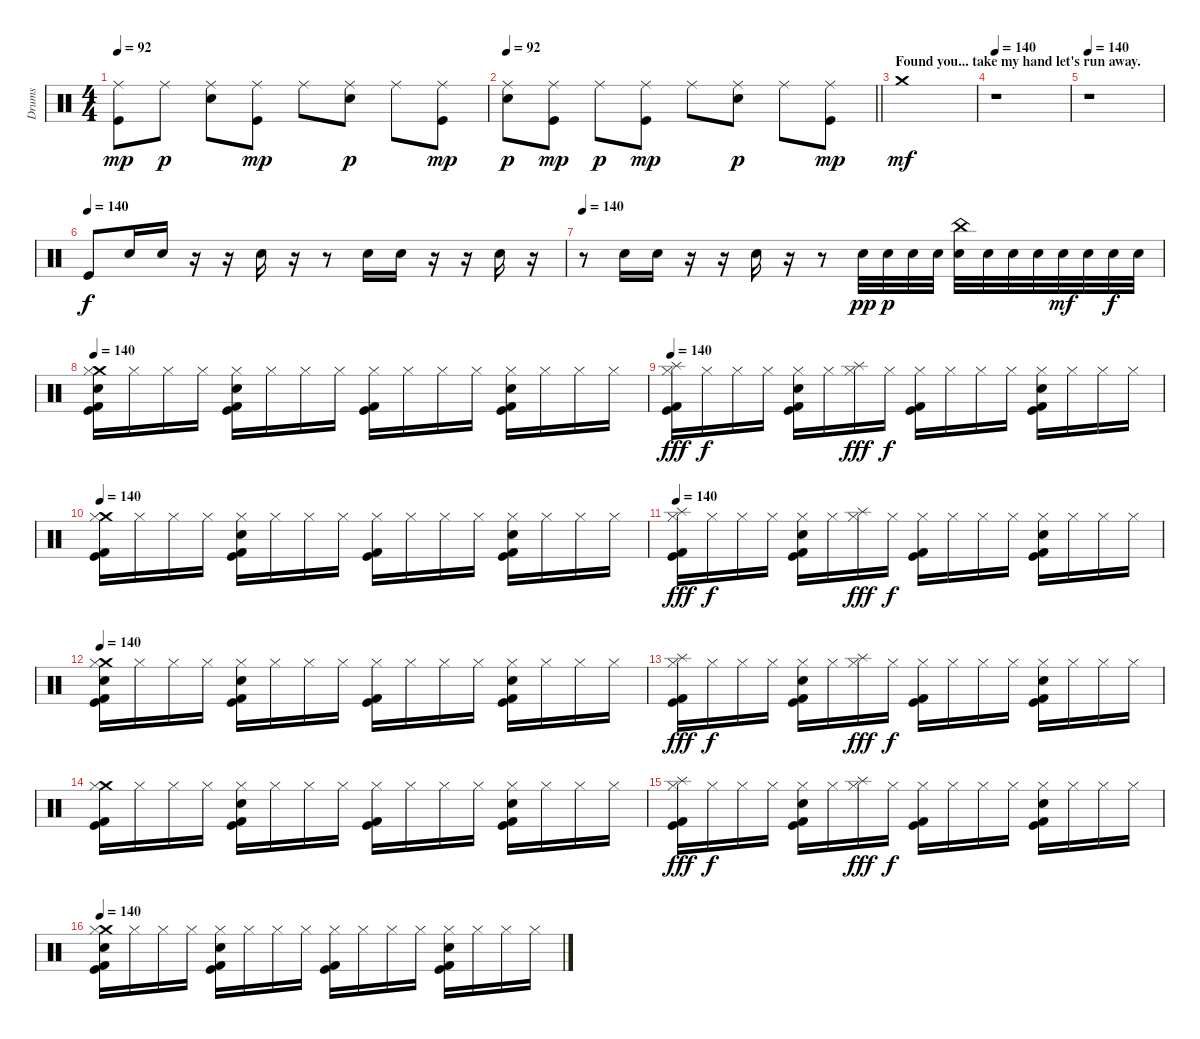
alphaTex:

\track ("Drums" "Drums") {instrument percussion}
\staff {score}
\articulation defaults
\ts (4 4)
\tempo 92
\clef neutral
\ks c
("Ride (middle)" "Kick (hit)").8{dy mp} "Ride (middle)".8{dy p} ("Ride (middle)" "Snare (hit) 2").8 ("Ride (middle)" "Kick (hit)").8{dy mp} "Ride (middle)".8 ("Ride (middle)" "Snare (hit) 2").8{dy p} "Ride (middle)".8 ("Ride (middle)" "Kick (hit)").8{dy mp} |
\tempo 92
\barLineRight lightlight
("Ride (middle)" "Snare (hit) 2").8{dy p} ("Ride (middle)" "Kick (hit)").8{dy mp} "Ride (middle)".8{dy p} ("Ride (middle)" "Kick (hit)").8{dy mp} "Ride (middle)".8 ("Ride (middle)" "Snare (hit) 2").8{dy p} "Ride (middle)".8 ("Ride (middle)" "Kick (hit)").8{dy mp} |
\section ("" "Found you... take my hand let's run away.")
"Crash medium (hit)".1{dy mf} |
\tempo 140
r.1 |
\tempo 140
r.1 |
\tempo (140)
"Kick (hit)".8{dy f} "Hand Clap (hit)".16 "Hand Clap (hit)".16 r.16 r.16 "Hand Clap (hit)".16 r.16 r.8 "Hand Clap (hit)".16 "Hand Clap (hit)".16 r.16 r.16 "Hand Clap (hit)".16 r.16 |
\tempo 140
r.8 "Hand Clap (hit)".16 "Hand Clap (hit)".16 r.16 r.16 "Hand Clap (hit)".16 r.16 r.8 "Hand Clap (hit)".32{dy pp} "Hand Clap (hit)".32{dy p} "Hand Clap (hit)".32 "Hand Clap (hit)".32 ("China (hit)" "Hand Clap (hit)").32 "Hand Clap (hit)".32 "Hand Clap (hit)".32 "Hand Clap (hit)".32 "Hand Clap (hit)".32{dy mf} "Hand Clap (hit)".32 "Hand Clap (hit)".32{dy f} "Hand Clap (hit)".32 |
\tempo 140
("Crash medium (hit)" "Hi-Hat (closed)" "Hand Clap (hit)" "Kick (hit)" "Kick (hit) 2").16 "Hi-Hat (closed)".16 "Hi-Hat (closed)".16 "Hi-Hat (closed)".16 ("Hi-Hat (closed)" "Electric Snare (hit)" "Kick (hit)" "Kick (hit) 2").16 "Hi-Hat (closed)".16 "Hi-Hat (closed)".16 "Hi-Hat (closed)".16 ("Hi-Hat (closed)" "Kick (hit)" "Kick (hit) 2").16 "Hi-Hat (closed)".16 "Hi-Hat (closed)".16 "Hi-Hat (closed)".16 ("Hi-Hat (closed)" "Electric Snare (hit)" "Kick (hit)" "Kick (hit) 2").16 "Hi-Hat (closed)".16 "Hi-Hat (closed)".16 "Hi-Hat (closed)".16 |
\tempo 140
("Splash (hit)" "Hi-Hat (closed)" "Kick (hit)" "Kick (hit) 2").16{dy fff} "Hi-Hat (closed)".16{dy f} "Hi-Hat (closed)".16 "Hi-Hat (closed)".16 ("Hi-Hat (closed)" "Electric Snare (hit)" "Kick (hit)" "Kick (hit) 2").16 "Hi-Hat (closed)".16 ("Splash (hit)" "Hi-Hat (closed)").16{dy fff} "Hi-Hat (closed)".16{dy f} ("Hi-Hat (closed)" "Kick (hit)" "Kick (hit) 2").16 "Hi-Hat (closed)".16 "Hi-Hat (closed)".16 "Hi-Hat (closed)".16 ("Hi-Hat (closed)" "Electric Snare (hit)" "Kick (hit)" "Kick (hit) 2").16 "Hi-Hat (closed)".16 "Hi-Hat (closed)".16 "Hi-Hat (closed)".16 |
\tempo 140
("Crash medium (hit)" "Hi-Hat (closed)" "Kick (hit)" "Kick (hit) 2").16 "Hi-Hat (closed)".16 "Hi-Hat (closed)".16 "Hi-Hat (closed)".16 ("Hi-Hat (closed)" "Electric Snare (hit)" "Kick (hit)" "Kick (hit) 2").16 "Hi-Hat (closed)".16 "Hi-Hat (closed)".16 "Hi-Hat (closed)".16 ("Hi-Hat (closed)" "Kick (hit)" "Kick (hit) 2").16 "Hi-Hat (closed)".16 "Hi-Hat (closed)".16 "Hi-Hat (closed)".16 ("Hi-Hat (closed)" "Electric Snare (hit)" "Kick (hit)" "Kick (hit) 2").16 "Hi-Hat (closed)".16 "Hi-Hat (closed)".16 "Hi-Hat (closed)".16 |
\tempo 140
("Splash (hit)" "Hi-Hat (closed)" "Kick (hit)" "Kick (hit) 2").16{dy fff} "Hi-Hat (closed)".16{dy f} "Hi-Hat (closed)".16 "Hi-Hat (closed)".16 ("Hi-Hat (closed)" "Electric Snare (hit)" "Kick (hit)" "Kick (hit) 2").16 "Hi-Hat (closed)".16 ("Splash (hit)" "Hi-Hat (closed)").16{dy fff} "Hi-Hat (closed)".16{dy f} ("Hi-Hat (closed)" "Kick (hit)" "Kick (hit) 2").16 "Hi-Hat (closed)".16 "Hi-Hat (closed)".16 "Hi-Hat (closed)".16 ("Hi-Hat (closed)" "Electric Snare (hit)" "Kick (hit)" "Kick (hit) 2").16 "Hi-Hat (closed)".16 "Hi-Hat (closed)".16 "Hi-Hat (closed)".16 |
\tempo 140
("Crash medium (hit)" "Hi-Hat (closed)" "Hand Clap (hit)" "Kick (hit)" "Kick (hit) 2").16 "Hi-Hat (closed)".16 "Hi-Hat (closed)".16 "Hi-Hat (closed)".16 ("Hi-Hat (closed)" "Electric Snare (hit)" "Kick (hit)" "Kick (hit) 2").16 "Hi-Hat (closed)".16 "Hi-Hat (closed)".16 "Hi-Hat (closed)".16 ("Hi-Hat (closed)" "Kick (hit)" "Kick (hit) 2").16 "Hi-Hat (closed)".16 "Hi-Hat (closed)".16 "Hi-Hat (closed)".16 ("Hi-Hat (closed)" "Electric Snare (hit)" "Kick (hit)" "Kick (hit) 2").16 "Hi-Hat (closed)".16 "Hi-Hat (closed)".16 "Hi-Hat (closed)".16 |
("Splash (hit)" "Hi-Hat (closed)" "Kick (hit)" "Kick (hit) 2").16{dy fff} "Hi-Hat (closed)".16{dy f} "Hi-Hat (closed)".16 "Hi-Hat (closed)".16 ("Hi-Hat (closed)" "Electric Snare (hit)" "Kick (hit)" "Kick (hit) 2").16 "Hi-Hat (closed)".16 ("Splash (hit)" "Hi-Hat (closed)").16{dy fff} "Hi-Hat (closed)".16{dy f} ("Hi-Hat (closed)" "Kick (hit)" "Kick (hit) 2").16 "Hi-Hat (closed)".16 "Hi-Hat (closed)".16 "Hi-Hat (closed)".16 ("Hi-Hat (closed)" "Electric Snare (hit)" "Kick (hit)" "Kick (hit) 2").16 "Hi-Hat (closed)".16 "Hi-Hat (closed)".16 "Hi-Hat (closed)".16 |
("Crash medium (hit)" "Hi-Hat (closed)" "Kick (hit)" "Kick (hit) 2").16 "Hi-Hat (closed)".16 "Hi-Hat (closed)".16 "Hi-Hat (closed)".16 ("Hi-Hat (closed)" "Electric Snare (hit)" "Kick (hit)" "Kick (hit) 2").16 "Hi-Hat (closed)".16 "Hi-Hat (closed)".16 "Hi-Hat (closed)".16 ("Hi-Hat (closed)" "Kick (hit)" "Kick (hit) 2").16 "Hi-Hat (closed)".16 "Hi-Hat (closed)".16 "Hi-Hat (closed)".16 ("Hi-Hat (closed)" "Electric Snare (hit)" "Kick (hit)" "Kick (hit) 2").16 "Hi-Hat (closed)".16 "Hi-Hat (closed)".16 "Hi-Hat (closed)".16 |
("Splash (hit)" "Hi-Hat (closed)" "Kick (hit)" "Kick (hit) 2").16{dy fff} "Hi-Hat (closed)".16{dy f} "Hi-Hat (closed)".16 "Hi-Hat (closed)".16 ("Hi-Hat (closed)" "Electric Snare (hit)" "Kick (hit)" "Kick (hit) 2").16 "Hi-Hat (closed)".16 ("Splash (hit)" "Hi-Hat (closed)").16{dy fff} "Hi-Hat (closed)".16{dy f} ("Hi-Hat (closed)" "Kick (hit)" "Kick (hit) 2").16 "Hi-Hat (closed)".16 "Hi-Hat (closed)".16 "Hi-Hat (closed)".16 ("Hi-Hat (closed)" "Electric Snare (hit)" "Kick (hit)" "Kick (hit) 2").16 "Hi-Hat (closed)".16 "Hi-Hat (closed)".16 "Hi-Hat (closed)".16 |
\tempo 140
("Crash medium (hit)" "Hi-Hat (closed)" "Hand Clap (hit)" "Kick (hit)" "Kick (hit) 2").16 "Hi-Hat (closed)".16 "Hi-Hat (closed)".16 "Hi-Hat (closed)".16 ("Hi-Hat (closed)" "Electric Snare (hit)" "Kick (hit)" "Kick (hit) 2").16 "Hi-Hat (closed)".16 "Hi-Hat (closed)".16 "Hi-Hat (closed)".16 ("Hi-Hat (closed)" "Kick (hit)" "Kick (hit) 2").16 "Hi-Hat (closed)".16 "Hi-Hat (closed)".16 "Hi-Hat (closed)".16 ("Hi-Hat (closed)" "Electric Snare (hit)" "Kick (hit)" "Kick (hit) 2").16 "Hi-Hat (closed)".16 "Hi-Hat (closed)".16 "Hi-Hat (closed)".16
